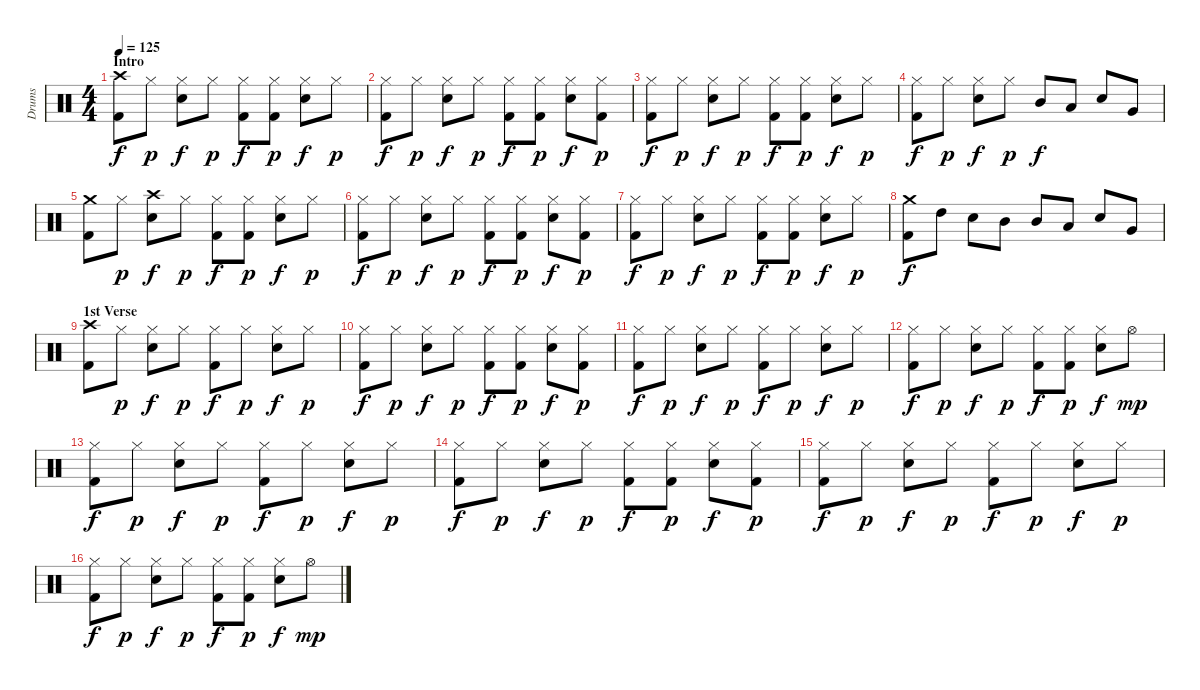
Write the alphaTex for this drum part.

\track ("Drums" "Drums") {instrument percussion}
\staff {score}
\articulation defaults
\ts (4 4)
\section ("" "Intro")
\tempo 125
\clef neutral
\ks c
("Crash high (hit)" "Kick (hit) 2").8{dy f} "Hi-Hat (closed)".8{dy p} ("Hi-Hat (closed)" "Snare (hit) 2").8{dy f} "Hi-Hat (closed)".8{dy p} ("Hi-Hat (closed)" "Kick (hit) 2").8{dy f} ("Hi-Hat (closed)" "Kick (hit) 2").8{dy p} ("Hi-Hat (closed)" "Snare (hit) 2").8{dy f} "Hi-Hat (closed)".8{dy p} |
("Hi-Hat (closed)" "Kick (hit) 2").8{dy f} "Hi-Hat (closed)".8{dy p} ("Hi-Hat (closed)" "Snare (hit) 2").8{dy f} "Hi-Hat (closed)".8{dy p} ("Hi-Hat (closed)" "Kick (hit) 2").8{dy f} ("Hi-Hat (closed)" "Kick (hit) 2").8{dy p} ("Hi-Hat (closed)" "Snare (hit) 2").8{dy f} ("Hi-Hat (closed)" "Kick (hit) 2").8{dy p} |
("Hi-Hat (closed)" "Kick (hit) 2").8{dy f} "Hi-Hat (closed)".8{dy p} ("Hi-Hat (closed)" "Snare (hit) 2").8{dy f} "Hi-Hat (closed)".8{dy p} ("Hi-Hat (closed)" "Kick (hit) 2").8{dy f} ("Hi-Hat (closed)" "Kick (hit) 2").8{dy p} ("Hi-Hat (closed)" "Snare (hit) 2").8{dy f} "Hi-Hat (closed)".8{dy p} |
("Hi-Hat (closed)" "Kick (hit) 2").8{dy f} "Hi-Hat (closed)".8{dy p} ("Hi-Hat (closed)" "Snare (hit) 2").8{dy f} "Hi-Hat (closed)".8{dy p} "Mid Tom (hit)".8{dy f} "Low Tom (hit)".8 "Snare (hit) 2".8 "Very Low Tom (hit)".8 |
("Crash medium (hit)" "Kick (hit) 2").8 "Hi-Hat (closed)".8{dy p} ("Crash high (hit)" "Snare (hit) 2").8{dy f} "Hi-Hat (closed)".8{dy p} ("Hi-Hat (closed)" "Kick (hit) 2").8{dy f} ("Hi-Hat (closed)" "Kick (hit) 2").8{dy p} ("Hi-Hat (closed)" "Snare (hit) 2").8{dy f} "Hi-Hat (closed)".8{dy p} |
("Hi-Hat (closed)" "Kick (hit) 2").8{dy f} "Hi-Hat (closed)".8{dy p} ("Hi-Hat (closed)" "Snare (hit) 2").8{dy f} "Hi-Hat (closed)".8{dy p} ("Hi-Hat (closed)" "Kick (hit) 2").8{dy f} ("Hi-Hat (closed)" "Kick (hit) 2").8{dy p} ("Hi-Hat (closed)" "Snare (hit) 2").8{dy f} ("Hi-Hat (closed)" "Kick (hit) 2").8{dy p} |
("Hi-Hat (closed)" "Kick (hit) 2").8{dy f} "Hi-Hat (closed)".8{dy p} ("Hi-Hat (closed)" "Snare (hit) 2").8{dy f} "Hi-Hat (closed)".8{dy p} ("Hi-Hat (closed)" "Kick (hit) 2").8{dy f} ("Hi-Hat (closed)" "Kick (hit) 2").8{dy p} ("Hi-Hat (closed)" "Snare (hit) 2").8{dy f} "Hi-Hat (closed)".8{dy p} |
("Crash medium (hit)" "Kick (hit) 2").8{dy f} "High Tom (hit)".8 "Snare (hit) 2".8 "Mid Tom (hit)".8 "Mid Tom (hit)".8 "Low Tom (hit)".8 "Snare (hit) 2".8 "Very Low Tom (hit)".8 |
\section ("" "1st Verse")
("Crash high (hit)" "Kick (hit) 2").8 "Hi-Hat (closed)".8{dy p} ("Hi-Hat (closed)" "Snare (hit) 2").8{dy f} "Hi-Hat (closed)".8{dy p} ("Hi-Hat (closed)" "Kick (hit) 2").8{dy f} "Hi-Hat (closed)".8{dy p} ("Hi-Hat (closed)" "Snare (hit) 2").8{dy f} "Hi-Hat (closed)".8{dy p} |
("Hi-Hat (closed)" "Kick (hit) 2").8{dy f} "Hi-Hat (closed)".8{dy p} ("Hi-Hat (closed)" "Snare (hit) 2").8{dy f} "Hi-Hat (closed)".8{dy p} ("Hi-Hat (closed)" "Kick (hit) 2").8{dy f} ("Hi-Hat (closed)" "Kick (hit) 2").8{dy p} ("Hi-Hat (closed)" "Snare (hit) 2").8{dy f} ("Hi-Hat (closed)" "Kick (hit) 2").8{dy p} |
("Hi-Hat (closed)" "Kick (hit) 2").8{dy f} "Hi-Hat (closed)".8{dy p} ("Hi-Hat (closed)" "Snare (hit) 2").8{dy f} "Hi-Hat (closed)".8{dy p} ("Hi-Hat (closed)" "Kick (hit) 2").8{dy f} "Hi-Hat (closed)".8{dy p} ("Hi-Hat (closed)" "Snare (hit) 2").8{dy f} "Hi-Hat (closed)".8{dy p} |
("Hi-Hat (closed)" "Kick (hit) 2").8{dy f} "Hi-Hat (closed)".8{dy p} ("Hi-Hat (closed)" "Snare (hit) 2").8{dy f} "Hi-Hat (closed)".8{dy p} ("Hi-Hat (closed)" "Kick (hit) 2").8{dy f} ("Hi-Hat (closed)" "Kick (hit) 2").8{dy p} ("Hi-Hat (closed)" "Snare (hit) 2").8{dy f} "Hi-Hat (open)".8{dy mp} |
("Hi-Hat (closed)" "Kick (hit) 2").8{dy f} "Hi-Hat (closed)".8{dy p} ("Hi-Hat (closed)" "Snare (hit) 2").8{dy f} "Hi-Hat (closed)".8{dy p} ("Hi-Hat (closed)" "Kick (hit) 2").8{dy f} "Hi-Hat (closed)".8{dy p} ("Hi-Hat (closed)" "Snare (hit) 2").8{dy f} "Hi-Hat (closed)".8{dy p} |
("Hi-Hat (closed)" "Kick (hit) 2").8{dy f} "Hi-Hat (closed)".8{dy p} ("Hi-Hat (closed)" "Snare (hit) 2").8{dy f} "Hi-Hat (closed)".8{dy p} ("Hi-Hat (closed)" "Kick (hit) 2").8{dy f} ("Hi-Hat (closed)" "Kick (hit) 2").8{dy p} ("Hi-Hat (closed)" "Snare (hit) 2").8{dy f} ("Hi-Hat (closed)" "Kick (hit) 2").8{dy p} |
("Hi-Hat (closed)" "Kick (hit) 2").8{dy f} "Hi-Hat (closed)".8{dy p} ("Hi-Hat (closed)" "Snare (hit) 2").8{dy f} "Hi-Hat (closed)".8{dy p} ("Hi-Hat (closed)" "Kick (hit) 2").8{dy f} "Hi-Hat (closed)".8{dy p} ("Hi-Hat (closed)" "Snare (hit) 2").8{dy f} "Hi-Hat (closed)".8{dy p} |
("Hi-Hat (closed)" "Kick (hit) 2").8{dy f} "Hi-Hat (closed)".8{dy p} ("Hi-Hat (closed)" "Snare (hit) 2").8{dy f} "Hi-Hat (closed)".8{dy p} ("Hi-Hat (closed)" "Kick (hit) 2").8{dy f} ("Hi-Hat (closed)" "Kick (hit) 2").8{dy p} ("Hi-Hat (closed)" "Snare (hit) 2").8{dy f} "Hi-Hat (open)".8{dy mp}
